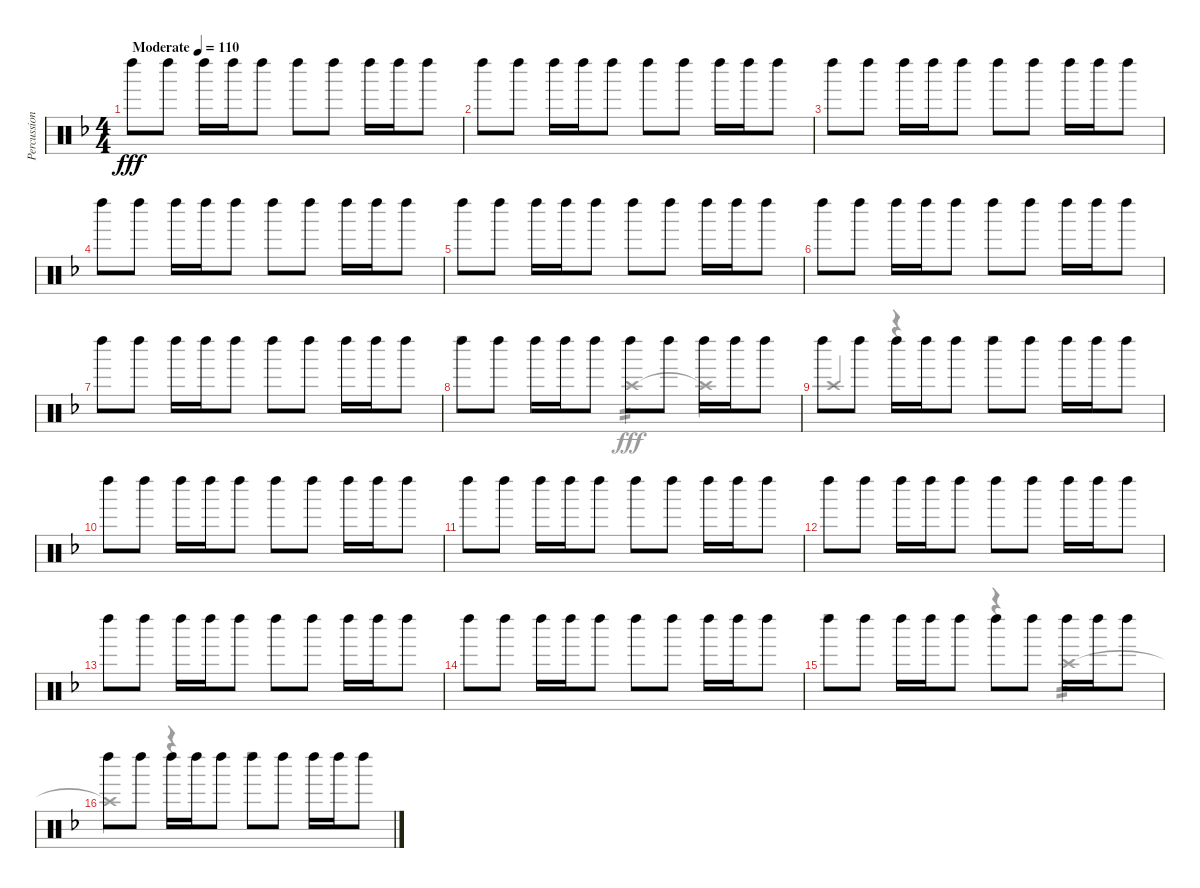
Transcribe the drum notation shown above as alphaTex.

\track ("Percussions" "Percussion") {instrument percussion}
\staff {score}
\articulation defaults
\voice
\ts (4 4)
\tempo (110 "Moderate")
\clef neutral
\ks f "Left Maraca (hit)".8{dy fff} "Left Maraca (hit)".8 "Left Maraca (hit)".16 "Left Maraca (hit)".16 "Left Maraca (hit)".8 "Left Maraca (hit)".8 "Left Maraca (hit)".8 "Left Maraca (hit)".16 "Left Maraca (hit)".16 "Left Maraca (hit)".8
|
"Left Maraca (hit)".8 "Left Maraca (hit)".8 "Left Maraca (hit)".16 "Left Maraca (hit)".16 "Left Maraca (hit)".8 "Left Maraca (hit)".8 "Left Maraca (hit)".8 "Left Maraca (hit)".16 "Left Maraca (hit)".16 "Left Maraca (hit)".8 |
"Left Maraca (hit)".8 "Left Maraca (hit)".8 "Left Maraca (hit)".16 "Left Maraca (hit)".16 "Left Maraca (hit)".8 "Left Maraca (hit)".8 "Left Maraca (hit)".8 "Left Maraca (hit)".16 "Left Maraca (hit)".16 "Left Maraca (hit)".8 |
"Left Maraca (hit)".8 "Left Maraca (hit)".8 "Left Maraca (hit)".16 "Left Maraca (hit)".16 "Left Maraca (hit)".8 "Left Maraca (hit)".8 "Left Maraca (hit)".8 "Left Maraca (hit)".16 "Left Maraca (hit)".16 "Left Maraca (hit)".8 |
"Left Maraca (hit)".8 "Left Maraca (hit)".8 "Left Maraca (hit)".16 "Left Maraca (hit)".16 "Left Maraca (hit)".8 "Left Maraca (hit)".8 "Left Maraca (hit)".8 "Left Maraca (hit)".16 "Left Maraca (hit)".16 "Left Maraca (hit)".8 |
"Left Maraca (hit)".8 "Left Maraca (hit)".8 "Left Maraca (hit)".16 "Left Maraca (hit)".16 "Left Maraca (hit)".8 "Left Maraca (hit)".8 "Left Maraca (hit)".8 "Left Maraca (hit)".16 "Left Maraca (hit)".16 "Left Maraca (hit)".8 |
"Left Maraca (hit)".8 "Left Maraca (hit)".8 "Left Maraca (hit)".16 "Left Maraca (hit)".16 "Left Maraca (hit)".8 "Left Maraca (hit)".8 "Left Maraca (hit)".8 "Left Maraca (hit)".16 "Left Maraca (hit)".16 "Left Maraca (hit)".8 |
"Left Maraca (hit)".8{beam Down} "Left Maraca (hit)".8{beam Down} "Left Maraca (hit)".16{beam Down} "Left Maraca (hit)".16{beam Down} "Left Maraca (hit)".8{beam Down} "Left Maraca (hit)".8{beam Down} "Left Maraca (hit)".8{beam Down} "Left Maraca (hit)".16{beam Down} "Left Maraca (hit)".16{beam Down} "Left Maraca (hit)".8{beam Down} |
"Left Maraca (hit)".8{beam Down} "Left Maraca (hit)".8{beam Down} "Left Maraca (hit)".16{beam Down} "Left Maraca (hit)".16{beam Down} "Left Maraca (hit)".8{beam Down} "Left Maraca (hit)".8{beam Down} "Left Maraca (hit)".8{beam Down} "Left Maraca (hit)".16{beam Down} "Left Maraca (hit)".16{beam Down} "Left Maraca (hit)".8{beam Down} |
"Left Maraca (hit)".8 "Left Maraca (hit)".8 "Left Maraca (hit)".16 "Left Maraca (hit)".16 "Left Maraca (hit)".8 "Left Maraca (hit)".8 "Left Maraca (hit)".8 "Left Maraca (hit)".16 "Left Maraca (hit)".16 "Left Maraca (hit)".8 |
"Left Maraca (hit)".8 "Left Maraca (hit)".8 "Left Maraca (hit)".16 "Left Maraca (hit)".16 "Left Maraca (hit)".8 "Left Maraca (hit)".8 "Left Maraca (hit)".8 "Left Maraca (hit)".16 "Left Maraca (hit)".16 "Left Maraca (hit)".8 |
"Left Maraca (hit)".8 "Left Maraca (hit)".8 "Left Maraca (hit)".16 "Left Maraca (hit)".16 "Left Maraca (hit)".8 "Left Maraca (hit)".8 "Left Maraca (hit)".8 "Left Maraca (hit)".16 "Left Maraca (hit)".16 "Left Maraca (hit)".8 |
"Left Maraca (hit)".8 "Left Maraca (hit)".8 "Left Maraca (hit)".16 "Left Maraca (hit)".16 "Left Maraca (hit)".8 "Left Maraca (hit)".8 "Left Maraca (hit)".8 "Left Maraca (hit)".16 "Left Maraca (hit)".16 "Left Maraca (hit)".8 |
"Left Maraca (hit)".8 "Left Maraca (hit)".8 "Left Maraca (hit)".16 "Left Maraca (hit)".16 "Left Maraca (hit)".8 "Left Maraca (hit)".8 "Left Maraca (hit)".8 "Left Maraca (hit)".16 "Left Maraca (hit)".16 "Left Maraca (hit)".8 |
"Left Maraca (hit)".8{beam Down} "Left Maraca (hit)".8{beam Down} "Left Maraca (hit)".16{beam Down} "Left Maraca (hit)".16{beam Down} "Left Maraca (hit)".8{beam Down} "Left Maraca (hit)".8{beam Down} "Left Maraca (hit)".8{beam Down} "Left Maraca (hit)".16{beam Down} "Left Maraca (hit)".16{beam Down} "Left Maraca (hit)".8{beam Down} |
"Left Maraca (hit)".8{beam Down} "Left Maraca (hit)".8{beam Down} "Left Maraca (hit)".16{beam Down} "Left Maraca (hit)".16{beam Down} "Left Maraca (hit)".8{beam Down} "Left Maraca (hit)".8{beam Down} "Left Maraca (hit)".8{beam Down} "Left Maraca (hit)".16{beam Down} "Left Maraca (hit)".16{beam Down} "Left Maraca (hit)".8{beam Down}
\voice
\clef neutral
\ottava regular
\simile none
\ks f
|
|
|
|
|
|
|
r.2 "Crash high (hit)".4{tp 2} "Crash high (hit)"{t}.4 |
"Crash high (hit)".4{beam Up} r.4 r.2 |
|
|
|
|
|
r.2 r.4 "Crash high (hit)".4{tp 2} |
"Crash high (hit)"{t}.4 r.4 r.2
